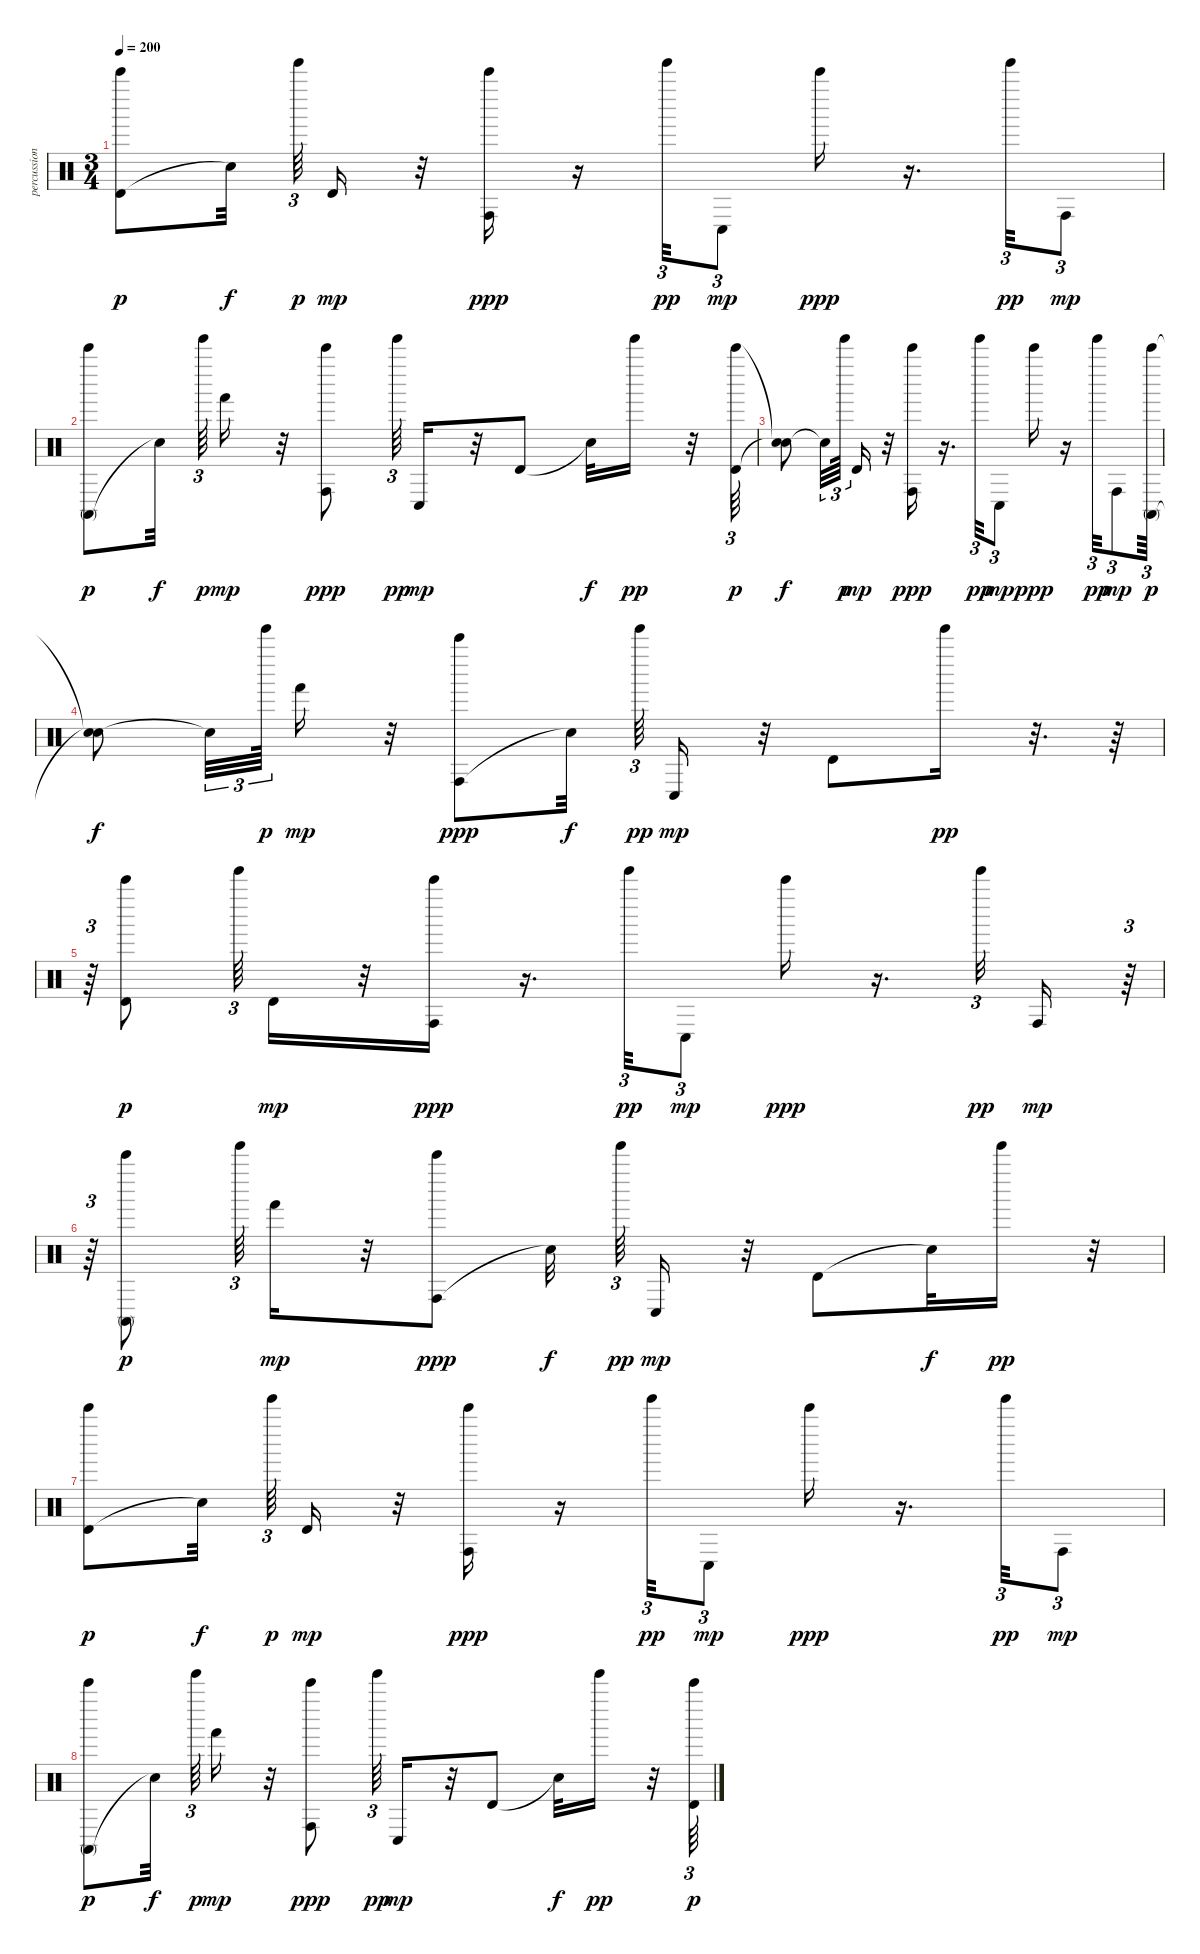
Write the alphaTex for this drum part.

\track ("percussion" "percussion") {instrument percussion}
\staff {score}
\articulation defaults
\ts (3 4)
\tempo 200
\clef neutral
\ks c
("Timbale high (hit)" "Bell Tree (hit)").8{dy p} "Snare (hit)"{t}.32{dy f} "Tinkle Bell (hit)".64{tu (3 2) dy p} "Timbale high (hit)".16{dy mp} r.32 ("Conga high (hit)" "Bell Tree (hit)").16{dy ppp} r.16 "Tinkle Bell (hit)".32{tu (3 2) dy pp} "Conga low (hit)".8{tu (3 2) dy mp} "Bell Tree (hit)".16{dy ppp} r.16{d} "Tinkle Bell (hit)".32{tu (3 2) dy pp} "Conga high (hit)".8{tu (3 2) dy mp} |
("Conga high (mute)" "Bell Tree (hit)").8{dy p} "Snare (hit)"{t}.32{dy f} "Tinkle Bell (hit)".64{tu (3 2) dy p} "Hand (hit)".16{dy mp} r.32 ("Conga high (hit)" "Bell Tree (hit)").8{dy ppp} "Tinkle Bell (hit)".64{tu (3 2) dy pp} "Conga low (hit)".16{dy mp} r.32 "Timbale high (hit)".8 "Snare (hit)"{t}.32{dy f} "Tinkle Bell (hit)".16{dy pp} r.32 ("Timbale high (hit)" "Bell Tree (hit)").64{tu (3 2) dy p} |
("Snare (hit)"{t} "Snare (hit)"{t}).8{dy f} "Snare (hit)"{t}.32{tu (3 2)} "Tinkle Bell (hit)".64{tu (3 2) dy p} "Timbale high (hit)".16{dy mp} r.32 ("Conga high (hit)" "Bell Tree (hit)").16{dy ppp} r.16{d} "Tinkle Bell (hit)".32{tu (3 2) dy pp} "Conga low (hit)".8{tu (3 2) dy mp} "Bell Tree (hit)".16{dy ppp} r.16 "Tinkle Bell (hit)".32{tu (3 2) dy pp} "Conga high (hit)".8{tu (3 2) dy mp} ("Conga high (mute)" "Bell Tree (hit)").64{tu (3 2) dy p} |
("Snare (hit)"{t} "Snare (hit)"{t}).8{dy f} "Snare (hit)"{t}.32{tu (3 2)} "Tinkle Bell (hit)".64{tu (3 2) dy p} "Hand (hit)".16{dy mp} r.32 ("Conga high (hit)" "Bell Tree (hit)").8{dy ppp} "Snare (hit)"{t}.32{dy f} "Tinkle Bell (hit)".64{tu (3 2) dy pp} "Conga low (hit)".16{dy mp} r.32 "Timbale high (hit)".8 "Tinkle Bell (hit)".16{dy pp} r.32{d} r.64 |
r.64{tu (3 2)} ("Timbale high (hit)" "Bell Tree (hit)").8{dy p} "Tinkle Bell (hit)".64{tu (3 2)} "Timbale high (hit)".16{dy mp} r.32 ("Conga high (hit)" "Bell Tree (hit)").16{dy ppp} r.16{d} "Tinkle Bell (hit)".32{tu (3 2) dy pp} "Conga low (hit)".8{tu (3 2) dy mp} "Bell Tree (hit)".16{dy ppp} r.16{d} "Tinkle Bell (hit)".32{tu (3 2) dy pp} "Conga high (hit)".16{dy mp} r.64{tu (3 2)} |
r.64{tu (3 2)} ("Conga high (mute)" "Bell Tree (hit)").8{dy p} "Tinkle Bell (hit)".64{tu (3 2)} "Hand (hit)".16{dy mp} r.32 ("Conga high (hit)" "Bell Tree (hit)").8{dy ppp} "Snare (hit)"{t}.32{dy f} "Tinkle Bell (hit)".64{tu (3 2) dy pp} "Conga low (hit)".16{dy mp} r.32 "Timbale high (hit)".8 "Snare (hit)"{t}.32{dy f} "Tinkle Bell (hit)".16{dy pp} r.32 |
("Timbale high (hit)" "Bell Tree (hit)").8{dy p} "Snare (hit)"{t}.32{dy f} "Tinkle Bell (hit)".64{tu (3 2) dy p} "Timbale high (hit)".16{dy mp} r.32 ("Conga high (hit)" "Bell Tree (hit)").16{dy ppp} r.16 "Tinkle Bell (hit)".32{tu (3 2) dy pp} "Conga low (hit)".8{tu (3 2) dy mp} "Bell Tree (hit)".16{dy ppp} r.16{d} "Tinkle Bell (hit)".32{tu (3 2) dy pp} "Conga high (hit)".8{tu (3 2) dy mp} |
("Conga high (mute)" "Bell Tree (hit)").8{dy p} "Snare (hit)"{t}.32{dy f} "Tinkle Bell (hit)".64{tu (3 2) dy p} "Hand (hit)".16{dy mp} r.32 ("Conga high (hit)" "Bell Tree (hit)").8{dy ppp} "Tinkle Bell (hit)".64{tu (3 2) dy pp} "Conga low (hit)".16{dy mp} r.32 "Timbale high (hit)".8 "Snare (hit)"{t}.32{dy f} "Tinkle Bell (hit)".16{dy pp} r.32 ("Timbale high (hit)" "Bell Tree (hit)").64{tu (3 2) dy p}
